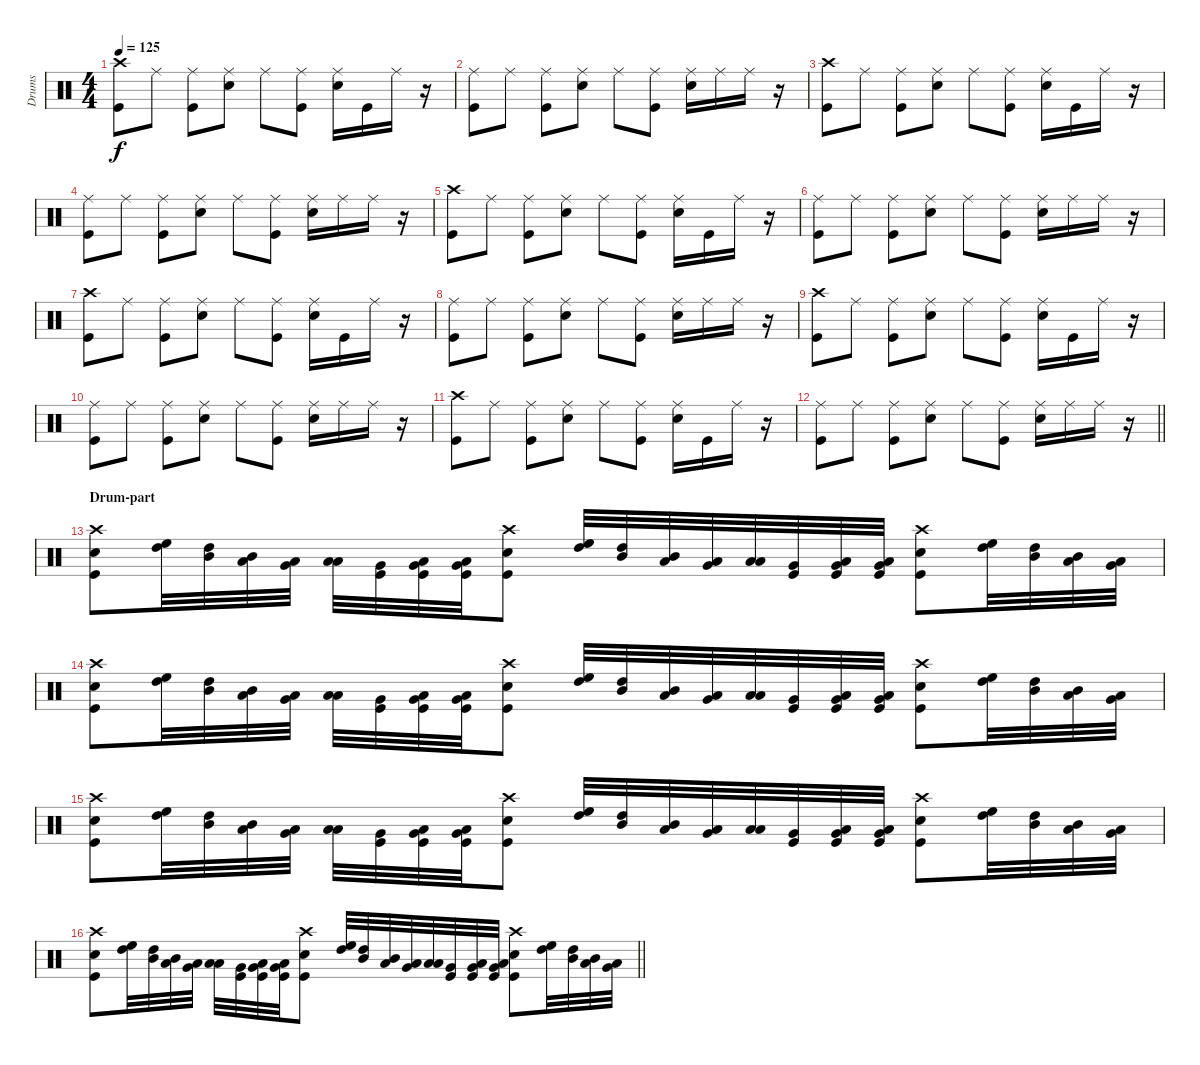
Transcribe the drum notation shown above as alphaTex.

\track ("Drums" "Drums") {instrument percussion}
\staff {score}
\articulation defaults
\ts (4 4)
\tempo 125
\clef neutral
\ks c
("Crash high (hit)" "Kick (hit)").8{dy f} "Ride (middle)".8 ("Ride (middle)" "Kick (hit)").8 ("Ride (middle)" "Snare (hit) 2").8 "Ride (middle)".8 ("Ride (middle)" "Kick (hit)").8 ("Ride (middle)" "Snare (hit) 2").16 "Kick (hit)".16 "Ride (middle)".16 r.16 |
("Ride (middle)" "Kick (hit)").8 "Ride (middle)".8 ("Ride (middle)" "Kick (hit)").8 ("Ride (middle)" "Snare (hit) 2").8 "Ride (middle)".8 ("Ride (middle)" "Kick (hit)").8 ("Ride (middle)" "Snare (hit) 2").16 "Ride (middle)".16 "Ride (middle)".16 r.16 |
("Crash high (hit)" "Kick (hit)").8 "Ride (middle)".8 ("Ride (middle)" "Kick (hit)").8 ("Ride (middle)" "Snare (hit) 2").8 "Ride (middle)".8 ("Ride (middle)" "Kick (hit)").8 ("Ride (middle)" "Snare (hit) 2").16 "Kick (hit)".16 "Ride (middle)".16 r.16 |
("Ride (middle)" "Kick (hit)").8 "Ride (middle)".8 ("Ride (middle)" "Kick (hit)").8 ("Ride (middle)" "Snare (hit) 2").8 "Ride (middle)".8 ("Ride (middle)" "Kick (hit)").8 ("Ride (middle)" "Snare (hit) 2").16 "Ride (middle)".16 "Ride (middle)".16 r.16 |
("Crash high (hit)" "Kick (hit)").8 "Ride (middle)".8 ("Ride (middle)" "Kick (hit)").8 ("Ride (middle)" "Snare (hit) 2").8 "Ride (middle)".8 ("Ride (middle)" "Kick (hit)").8 ("Ride (middle)" "Snare (hit) 2").16 "Kick (hit)".16 "Ride (middle)".16 r.16 |
("Ride (middle)" "Kick (hit)").8 "Ride (middle)".8 ("Ride (middle)" "Kick (hit)").8 ("Ride (middle)" "Snare (hit) 2").8 "Ride (middle)".8 ("Ride (middle)" "Kick (hit)").8 ("Ride (middle)" "Snare (hit) 2").16 "Ride (middle)".16 "Ride (middle)".16 r.16 |
("Crash high (hit)" "Kick (hit)").8 "Ride (middle)".8 ("Ride (middle)" "Kick (hit)").8 ("Ride (middle)" "Snare (hit) 2").8 "Ride (middle)".8 ("Ride (middle)" "Kick (hit)").8 ("Ride (middle)" "Snare (hit) 2").16 "Kick (hit)".16 "Ride (middle)".16 r.16 |
("Ride (middle)" "Kick (hit)").8 "Ride (middle)".8 ("Ride (middle)" "Kick (hit)").8 ("Ride (middle)" "Snare (hit) 2").8 "Ride (middle)".8 ("Ride (middle)" "Kick (hit)").8 ("Ride (middle)" "Snare (hit) 2").16 "Ride (middle)".16 "Ride (middle)".16 r.16 |
("Crash high (hit)" "Kick (hit)").8 "Ride (middle)".8 ("Ride (middle)" "Kick (hit)").8 ("Ride (middle)" "Snare (hit) 2").8 "Ride (middle)".8 ("Ride (middle)" "Kick (hit)").8 ("Ride (middle)" "Snare (hit) 2").16 "Kick (hit)".16 "Ride (middle)".16 r.16 |
("Ride (middle)" "Kick (hit)").8 "Ride (middle)".8 ("Ride (middle)" "Kick (hit)").8 ("Ride (middle)" "Snare (hit) 2").8 "Ride (middle)".8 ("Ride (middle)" "Kick (hit)").8 ("Ride (middle)" "Snare (hit) 2").16 "Ride (middle)".16 "Ride (middle)".16 r.16 |
("Crash high (hit)" "Kick (hit)").8 "Ride (middle)".8 ("Ride (middle)" "Kick (hit)").8 ("Ride (middle)" "Snare (hit) 2").8 "Ride (middle)".8 ("Ride (middle)" "Kick (hit)").8 ("Ride (middle)" "Snare (hit) 2").16 "Kick (hit)".16 "Ride (middle)".16 r.16 |
\barLineRight lightlight
("Ride (middle)" "Kick (hit)").8 "Ride (middle)".8 ("Ride (middle)" "Kick (hit)").8 ("Ride (middle)" "Snare (hit) 2").8 "Ride (middle)".8 ("Ride (middle)" "Kick (hit)").8 ("Ride (middle)" "Snare (hit) 2").16 "Ride (middle)".16 "Ride (middle)".16 r.16 |
\section ("" "Drum-part")
("Kick (hit)" "Snare (hit) 2" "Crash high (hit)").8 ("High Tom (hit)" "High Floor Tom (hit)").32 ("High Tom (hit)" "Mid Tom (hit)").32 ("Mid Tom (hit)" "Low Tom (hit)").32 ("Low Tom (hit)" "Very Low Tom (hit)").32 ("Low Floor Tom (hit)" "Low Floor Tom (hit)").32 ("Kick (hit)" "Very Low Tom (hit)").32 ("Kick (hit)" "Very Low Tom (hit)" "Low Floor Tom (hit)").32 ("Kick (hit)" "Low Floor Tom (hit)" "Very Low Tom (hit)").32 ("Kick (hit)" "Snare (hit) 2" "Crash high (hit)").8 ("High Tom (hit)" "High Floor Tom (hit)").32 ("High Tom (hit)" "Mid Tom (hit)").32 ("Mid Tom (hit)" "Low Tom (hit)").32 ("Low Tom (hit)" "Very Low Tom (hit)").32 ("Low Floor Tom (hit)" "Low Floor Tom (hit)").32 ("Kick (hit)" "Very Low Tom (hit)").32 ("Kick (hit)" "Very Low Tom (hit)" "Low Floor Tom (hit)").32 ("Kick (hit)" "Low Floor Tom (hit)" "Very Low Tom (hit)").32 ("Kick (hit)" "Snare (hit) 2" "Crash high (hit)").8 ("High Tom (hit)" "High Floor Tom (hit)").32 ("High Tom (hit)" "Mid Tom (hit)").32 ("Mid Tom (hit)" "Low Tom (hit)").32 ("Low Tom (hit)" "Very Low Tom (hit)").32 |
("Kick (hit)" "Snare (hit) 2" "Crash high (hit)").8 ("High Tom (hit)" "High Floor Tom (hit)").32 ("High Tom (hit)" "Mid Tom (hit)").32 ("Mid Tom (hit)" "Low Tom (hit)").32 ("Low Tom (hit)" "Very Low Tom (hit)").32 ("Low Floor Tom (hit)" "Low Floor Tom (hit)").32 ("Kick (hit)" "Very Low Tom (hit)").32 ("Kick (hit)" "Very Low Tom (hit)" "Low Floor Tom (hit)").32 ("Kick (hit)" "Low Floor Tom (hit)" "Very Low Tom (hit)").32 ("Kick (hit)" "Snare (hit) 2" "Crash high (hit)").8 ("High Tom (hit)" "High Floor Tom (hit)").32 ("High Tom (hit)" "Mid Tom (hit)").32 ("Mid Tom (hit)" "Low Tom (hit)").32 ("Low Tom (hit)" "Very Low Tom (hit)").32 ("Low Floor Tom (hit)" "Low Floor Tom (hit)").32 ("Kick (hit)" "Very Low Tom (hit)").32 ("Kick (hit)" "Very Low Tom (hit)" "Low Floor Tom (hit)").32 ("Kick (hit)" "Low Floor Tom (hit)" "Very Low Tom (hit)").32 ("Kick (hit)" "Snare (hit) 2" "Crash high (hit)").8 ("High Tom (hit)" "High Floor Tom (hit)").32 ("High Tom (hit)" "Mid Tom (hit)").32 ("Mid Tom (hit)" "Low Tom (hit)").32 ("Low Tom (hit)" "Very Low Tom (hit)").32 |
("Kick (hit)" "Snare (hit) 2" "Crash high (hit)").8 ("High Tom (hit)" "High Floor Tom (hit)").32 ("High Tom (hit)" "Mid Tom (hit)").32 ("Mid Tom (hit)" "Low Tom (hit)").32 ("Low Tom (hit)" "Very Low Tom (hit)").32 ("Low Floor Tom (hit)" "Low Floor Tom (hit)").32 ("Kick (hit)" "Very Low Tom (hit)").32 ("Kick (hit)" "Very Low Tom (hit)" "Low Floor Tom (hit)").32 ("Kick (hit)" "Low Floor Tom (hit)" "Very Low Tom (hit)").32 ("Kick (hit)" "Snare (hit) 2" "Crash high (hit)").8 ("High Tom (hit)" "High Floor Tom (hit)").32 ("High Tom (hit)" "Mid Tom (hit)").32 ("Mid Tom (hit)" "Low Tom (hit)").32 ("Low Tom (hit)" "Very Low Tom (hit)").32 ("Low Floor Tom (hit)" "Low Floor Tom (hit)").32 ("Kick (hit)" "Very Low Tom (hit)").32 ("Kick (hit)" "Very Low Tom (hit)" "Low Floor Tom (hit)").32 ("Kick (hit)" "Low Floor Tom (hit)" "Very Low Tom (hit)").32 ("Kick (hit)" "Snare (hit) 2" "Crash high (hit)").8 ("High Tom (hit)" "High Floor Tom (hit)").32 ("High Tom (hit)" "Mid Tom (hit)").32 ("Mid Tom (hit)" "Low Tom (hit)").32 ("Low Tom (hit)" "Very Low Tom (hit)").32 |
\barLineRight lightlight
("Kick (hit)" "Snare (hit) 2" "Crash high (hit)").8 ("High Tom (hit)" "High Floor Tom (hit)").32 ("High Tom (hit)" "Mid Tom (hit)").32 ("Mid Tom (hit)" "Low Tom (hit)").32 ("Low Tom (hit)" "Very Low Tom (hit)").32 ("Low Floor Tom (hit)" "Low Floor Tom (hit)").32 ("Kick (hit)" "Very Low Tom (hit)").32 ("Kick (hit)" "Very Low Tom (hit)" "Low Floor Tom (hit)").32 ("Kick (hit)" "Low Floor Tom (hit)" "Very Low Tom (hit)").32 ("Kick (hit)" "Snare (hit) 2" "Crash high (hit)").8 ("High Tom (hit)" "High Floor Tom (hit)").32 ("High Tom (hit)" "Mid Tom (hit)").32 ("Mid Tom (hit)" "Low Tom (hit)").32 ("Low Tom (hit)" "Very Low Tom (hit)").32 ("Low Floor Tom (hit)" "Low Floor Tom (hit)").32 ("Kick (hit)" "Very Low Tom (hit)").32 ("Kick (hit)" "Very Low Tom (hit)" "Low Floor Tom (hit)").32 ("Kick (hit)" "Low Floor Tom (hit)" "Very Low Tom (hit)").32 ("Kick (hit)" "Snare (hit) 2" "Crash high (hit)").8 ("High Tom (hit)" "High Floor Tom (hit)").32 ("High Tom (hit)" "Mid Tom (hit)").32 ("Mid Tom (hit)" "Low Tom (hit)").32 ("Low Tom (hit)" "Very Low Tom (hit)").32
